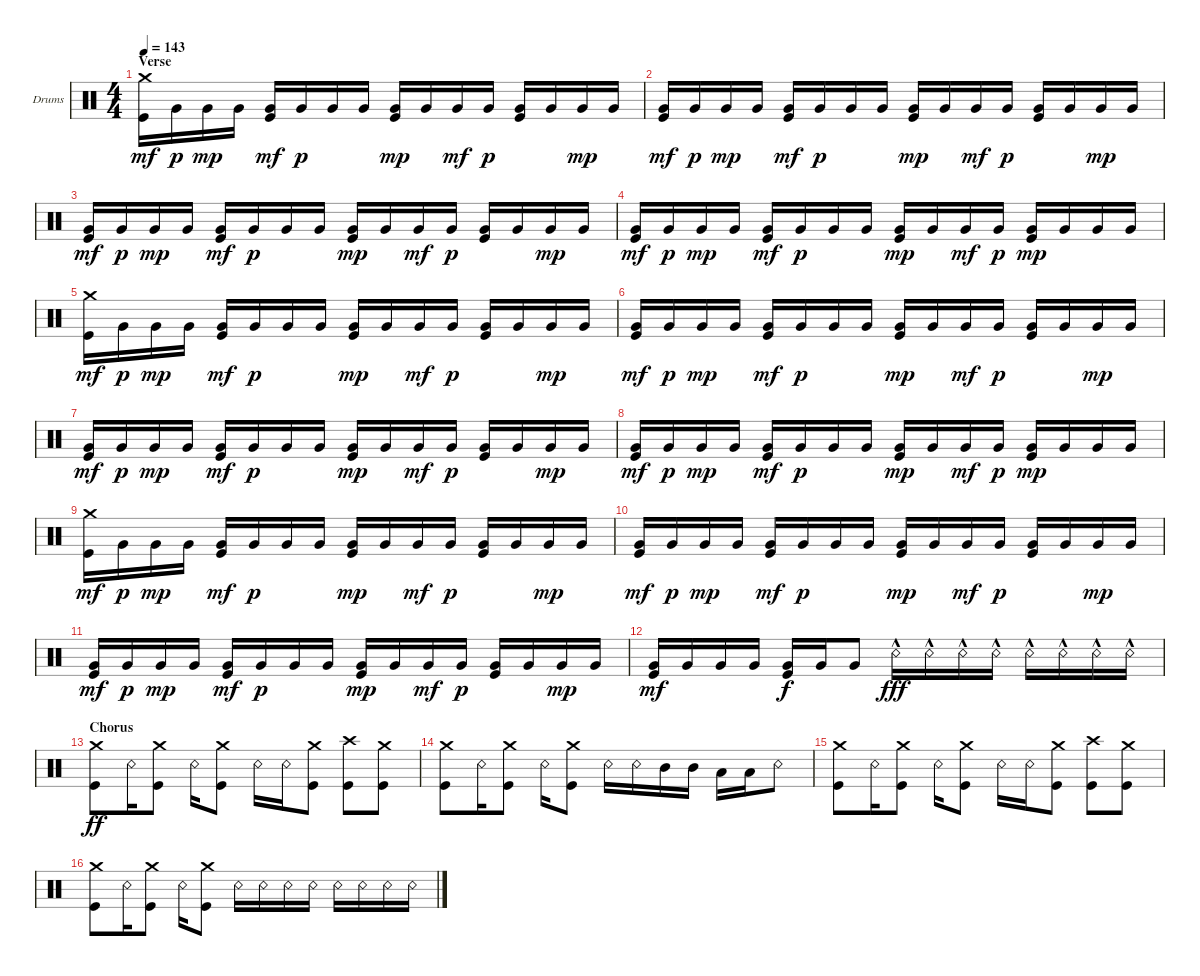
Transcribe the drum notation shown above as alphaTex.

\defaultSystemsLayout 4
\bracketExtendMode groupsimilarinstruments
\firstSystemTrackNameOrientation horizontal
\otherSystemsTrackNameOrientation horizontal
\track ("Nao - Drums" "Drums") {instrument percussion}
\staff {score}
\articulation defaults
\ts (4 4)
\section ("" "Verse")
\tempo 143
\clef neutral
\ks c
("Kick (hit)" "Crash medium (hit)").16{dy mf} "Very Low Tom (hit)".16{dy p} "Very Low Tom (hit)".16{dy mp} "Very Low Tom (hit)".16 ("Very Low Tom (hit)" "Kick (hit)").16{dy mf} "Very Low Tom (hit)".16{dy p} "Very Low Tom (hit)".16 "Very Low Tom (hit)".16 ("Very Low Tom (hit)" "Kick (hit)").16{dy mp} "Very Low Tom (hit)".16 "Very Low Tom (hit)".16{dy mf} "Very Low Tom (hit)".16{dy p} ("Kick (hit)" "Very Low Tom (hit)").16 "Very Low Tom (hit)".16 "Very Low Tom (hit)".16{dy mp} "Very Low Tom (hit)".16 |
("Very Low Tom (hit)" "Kick (hit)").16{dy mf} "Very Low Tom (hit)".16{dy p} "Very Low Tom (hit)".16{dy mp} "Very Low Tom (hit)".16 ("Very Low Tom (hit)" "Kick (hit)").16{dy mf} "Very Low Tom (hit)".16{dy p} "Very Low Tom (hit)".16 "Very Low Tom (hit)".16 ("Very Low Tom (hit)" "Kick (hit)").16{dy mp} "Very Low Tom (hit)".16 "Very Low Tom (hit)".16{dy mf} "Very Low Tom (hit)".16{dy p} ("Kick (hit)" "Very Low Tom (hit)").16 "Very Low Tom (hit)".16 "Very Low Tom (hit)".16{dy mp} "Very Low Tom (hit)".16 |
("Very Low Tom (hit)" "Kick (hit)").16{dy mf} "Very Low Tom (hit)".16{dy p} "Very Low Tom (hit)".16{dy mp} "Very Low Tom (hit)".16 ("Very Low Tom (hit)" "Kick (hit)").16{dy mf} "Very Low Tom (hit)".16{dy p} "Very Low Tom (hit)".16 "Very Low Tom (hit)".16 ("Very Low Tom (hit)" "Kick (hit)").16{dy mp} "Very Low Tom (hit)".16 "Very Low Tom (hit)".16{dy mf} "Very Low Tom (hit)".16{dy p} ("Kick (hit)" "Very Low Tom (hit)").16 "Very Low Tom (hit)".16 "Very Low Tom (hit)".16{dy mp} "Very Low Tom (hit)".16 |
("Very Low Tom (hit)" "Kick (hit)").16{dy mf} "Very Low Tom (hit)".16{dy p} "Very Low Tom (hit)".16{dy mp} "Very Low Tom (hit)".16 ("Very Low Tom (hit)" "Kick (hit)").16{dy mf} "Very Low Tom (hit)".16{dy p} "Very Low Tom (hit)".16 "Very Low Tom (hit)".16 ("Very Low Tom (hit)" "Kick (hit)").16{dy mp} "Very Low Tom (hit)".16 "Very Low Tom (hit)".16{dy mf} "Very Low Tom (hit)".16{dy p} ("Kick (hit)" "Very Low Tom (hit)").16{dy mp} "Very Low Tom (hit)".16 "Very Low Tom (hit)".16 "Very Low Tom (hit)".16 |
("Kick (hit)" "Crash medium (hit)").16{dy mf} "Very Low Tom (hit)".16{dy p} "Very Low Tom (hit)".16{dy mp} "Very Low Tom (hit)".16 ("Very Low Tom (hit)" "Kick (hit)").16{dy mf} "Very Low Tom (hit)".16{dy p} "Very Low Tom (hit)".16 "Very Low Tom (hit)".16 ("Very Low Tom (hit)" "Kick (hit)").16{dy mp} "Very Low Tom (hit)".16 "Very Low Tom (hit)".16{dy mf} "Very Low Tom (hit)".16{dy p} ("Kick (hit)" "Very Low Tom (hit)").16 "Very Low Tom (hit)".16 "Very Low Tom (hit)".16{dy mp} "Very Low Tom (hit)".16 |
("Very Low Tom (hit)" "Kick (hit)").16{dy mf} "Very Low Tom (hit)".16{dy p} "Very Low Tom (hit)".16{dy mp} "Very Low Tom (hit)".16 ("Very Low Tom (hit)" "Kick (hit)").16{dy mf} "Very Low Tom (hit)".16{dy p} "Very Low Tom (hit)".16 "Very Low Tom (hit)".16 ("Very Low Tom (hit)" "Kick (hit)").16{dy mp} "Very Low Tom (hit)".16 "Very Low Tom (hit)".16{dy mf} "Very Low Tom (hit)".16{dy p} ("Kick (hit)" "Very Low Tom (hit)").16 "Very Low Tom (hit)".16 "Very Low Tom (hit)".16{dy mp} "Very Low Tom (hit)".16 |
("Very Low Tom (hit)" "Kick (hit)").16{dy mf} "Very Low Tom (hit)".16{dy p} "Very Low Tom (hit)".16{dy mp} "Very Low Tom (hit)".16 ("Very Low Tom (hit)" "Kick (hit)").16{dy mf} "Very Low Tom (hit)".16{dy p} "Very Low Tom (hit)".16 "Very Low Tom (hit)".16 ("Very Low Tom (hit)" "Kick (hit)").16{dy mp} "Very Low Tom (hit)".16 "Very Low Tom (hit)".16{dy mf} "Very Low Tom (hit)".16{dy p} ("Kick (hit)" "Very Low Tom (hit)").16 "Very Low Tom (hit)".16 "Very Low Tom (hit)".16{dy mp} "Very Low Tom (hit)".16 |
("Very Low Tom (hit)" "Kick (hit)").16{dy mf} "Very Low Tom (hit)".16{dy p} "Very Low Tom (hit)".16{dy mp} "Very Low Tom (hit)".16 ("Very Low Tom (hit)" "Kick (hit)").16{dy mf} "Very Low Tom (hit)".16{dy p} "Very Low Tom (hit)".16 "Very Low Tom (hit)".16 ("Very Low Tom (hit)" "Kick (hit)").16{dy mp} "Very Low Tom (hit)".16 "Very Low Tom (hit)".16{dy mf} "Very Low Tom (hit)".16{dy p} ("Kick (hit)" "Very Low Tom (hit)").16{dy mp} "Very Low Tom (hit)".16 "Very Low Tom (hit)".16 "Very Low Tom (hit)".16 |
("Kick (hit)" "Crash medium (hit)").16{dy mf} "Very Low Tom (hit)".16{dy p} "Very Low Tom (hit)".16{dy mp} "Very Low Tom (hit)".16 ("Very Low Tom (hit)" "Kick (hit)").16{dy mf} "Very Low Tom (hit)".16{dy p} "Very Low Tom (hit)".16 "Very Low Tom (hit)".16 ("Very Low Tom (hit)" "Kick (hit)").16{dy mp} "Very Low Tom (hit)".16 "Very Low Tom (hit)".16{dy mf} "Very Low Tom (hit)".16{dy p} ("Kick (hit)" "Very Low Tom (hit)").16 "Very Low Tom (hit)".16 "Very Low Tom (hit)".16{dy mp} "Very Low Tom (hit)".16 |
("Very Low Tom (hit)" "Kick (hit)").16{dy mf} "Very Low Tom (hit)".16{dy p} "Very Low Tom (hit)".16{dy mp} "Very Low Tom (hit)".16 ("Very Low Tom (hit)" "Kick (hit)").16{dy mf} "Very Low Tom (hit)".16{dy p} "Very Low Tom (hit)".16 "Very Low Tom (hit)".16 ("Very Low Tom (hit)" "Kick (hit)").16{dy mp} "Very Low Tom (hit)".16 "Very Low Tom (hit)".16{dy mf} "Very Low Tom (hit)".16{dy p} ("Kick (hit)" "Very Low Tom (hit)").16 "Very Low Tom (hit)".16 "Very Low Tom (hit)".16{dy mp} "Very Low Tom (hit)".16 |
("Very Low Tom (hit)" "Kick (hit)").16{dy mf} "Very Low Tom (hit)".16{dy p} "Very Low Tom (hit)".16{dy mp} "Very Low Tom (hit)".16 ("Very Low Tom (hit)" "Kick (hit)").16{dy mf} "Very Low Tom (hit)".16{dy p} "Very Low Tom (hit)".16 "Very Low Tom (hit)".16 ("Very Low Tom (hit)" "Kick (hit)").16{dy mp} "Very Low Tom (hit)".16 "Very Low Tom (hit)".16{dy mf} "Very Low Tom (hit)".16{dy p} ("Kick (hit)" "Very Low Tom (hit)").16 "Very Low Tom (hit)".16 "Very Low Tom (hit)".16{dy mp} "Very Low Tom (hit)".16 |
("Kick (hit)" "Very Low Tom (hit)").16{dy mf} "Very Low Tom (hit)".16 "Very Low Tom (hit)".16 "Very Low Tom (hit)".16 ("Very Low Tom (hit)" "Kick (hit)").16{dy f} "Very Low Tom (hit)".16 "Very Low Tom (hit)".8 "Snare (rim shot)"{hac}.16{dy fff} "Snare (rim shot)"{hac}.16 "Snare (rim shot)"{hac}.16 "Snare (rim shot)"{hac}.16 "Snare (rim shot)"{hac}.16 "Snare (rim shot)"{hac}.16 "Snare (rim shot)"{hac}.16 "Snare (rim shot)"{hac}.16 |
\section ("" "Chorus")
("Crash medium (hit)" "Kick (hit)").8{dy ff} "Snare (rim shot)".16 ("Crash medium (hit)" "Kick (hit)").8 "Snare (rim shot)".16 ("Crash medium (hit)" "Kick (hit)").8 "Snare (rim shot)".16 "Snare (rim shot)".16 ("Kick (hit)" "Crash medium (hit)").8 ("Crash high (hit)" "Kick (hit)").8 ("Crash medium (hit)" "Kick (hit)").8 |
("Crash medium (hit)" "Kick (hit)").8 "Snare (rim shot)".16 ("Crash medium (hit)" "Kick (hit)").8 "Snare (rim shot)".16 ("Crash medium (hit)" "Kick (hit)").8 "Snare (rim shot)".16 "Snare (rim shot)".16 "Mid Tom (hit)".16 "Mid Tom (hit)".16 "Low Tom (hit)".16 "Low Tom (hit)".16 "Snare (rim shot)".8 |
("Crash medium (hit)" "Kick (hit)").8 "Snare (rim shot)".16 ("Crash medium (hit)" "Kick (hit)").8 "Snare (rim shot)".16 ("Crash medium (hit)" "Kick (hit)").8 "Snare (rim shot)".16 "Snare (rim shot)".16 ("Kick (hit)" "Crash medium (hit)").8 ("Crash high (hit)" "Kick (hit)").8 ("Crash medium (hit)" "Kick (hit)").8 |
("Crash medium (hit)" "Kick (hit)").8 "Snare (rim shot)".16 ("Crash medium (hit)" "Kick (hit)").8 "Snare (rim shot)".16 ("Crash medium (hit)" "Kick (hit)").8 "Snare (rim shot)".16 "Snare (rim shot)".16 "Snare (rim shot)".16 "Snare (rim shot)".16 "Snare (rim shot)".16 "Snare (rim shot)".16 "Snare (rim shot)".16 "Snare (rim shot)".16
